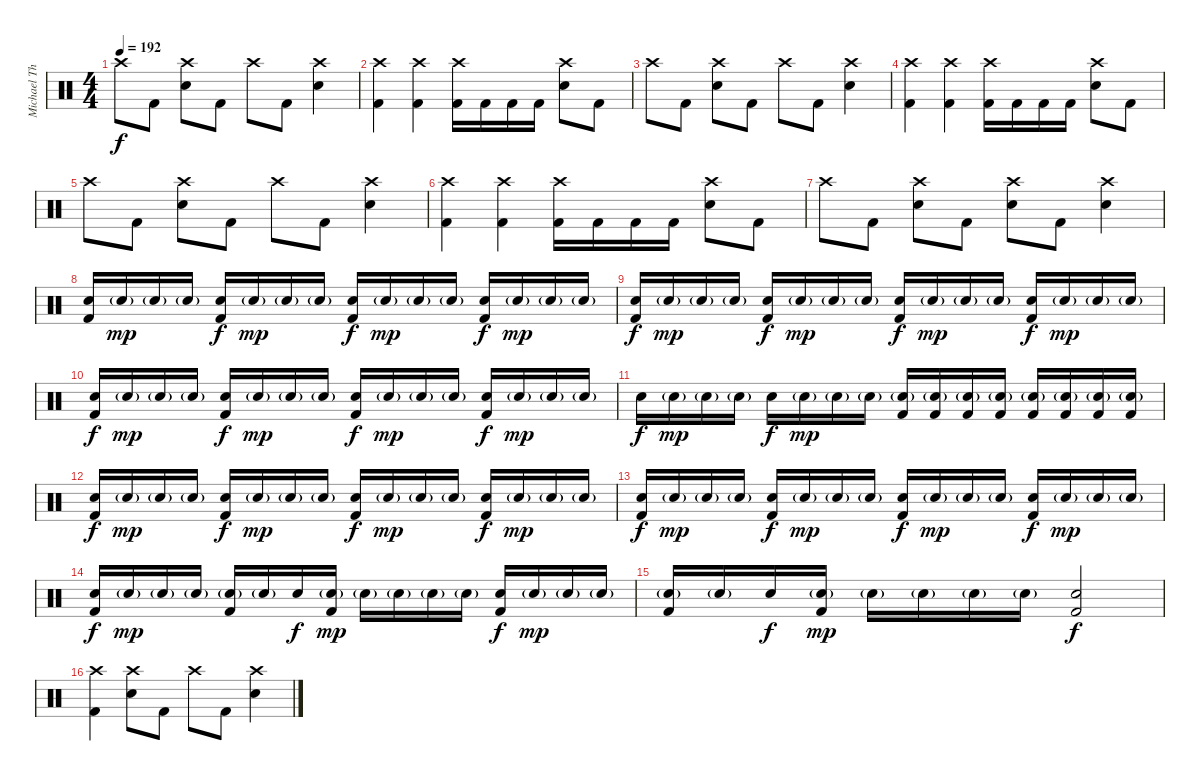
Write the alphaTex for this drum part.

\track ("Michael Thomas (Drums)" "Michael Th") {instrument percussion}
\staff {score}
\articulation defaults
\ts (4 4)
\tempo 192
\clef neutral
\ks c "Crash high (hit)".8{dy f} "Kick (hit) 2".8
("Crash high (hit)" "Snare (hit) 2").8 "Kick (hit) 2".8 "Crash high (hit)".8 "Kick (hit) 2".8 ("Crash high (hit)" "Snare (hit) 2").4 |
("Crash high (hit)" "Kick (hit) 2").4 ("Crash high (hit)" "Kick (hit) 2").4 ("Crash high (hit)" "Kick (hit) 2").16 "Kick (hit) 2".16 "Kick (hit) 2".16 "Kick (hit) 2".16 ("Crash high (hit)" "Snare (hit) 2").8 "Kick (hit) 2".8 |
"Crash high (hit)".8 "Kick (hit) 2".8 ("Crash high (hit)" "Snare (hit) 2").8 "Kick (hit) 2".8 "Crash high (hit)".8 "Kick (hit) 2".8 ("Crash high (hit)" "Snare (hit) 2").4 |
("Crash high (hit)" "Kick (hit) 2").4 ("Crash high (hit)" "Kick (hit) 2").4 ("Crash high (hit)" "Kick (hit) 2").16 "Kick (hit) 2".16 "Kick (hit) 2".16 "Kick (hit) 2".16 ("Crash high (hit)" "Snare (hit) 2").8 "Kick (hit) 2".8 |
"Crash high (hit)".8 "Kick (hit) 2".8 ("Crash high (hit)" "Snare (hit) 2").8 "Kick (hit) 2".8 "Crash high (hit)".8 "Kick (hit) 2".8 ("Crash high (hit)" "Snare (hit) 2").4 |
("Crash high (hit)" "Kick (hit) 2").4 ("Crash high (hit)" "Kick (hit) 2").4 ("Crash high (hit)" "Kick (hit) 2").16 "Kick (hit) 2".16 "Kick (hit) 2".16 "Kick (hit) 2".16 ("Crash high (hit)" "Snare (hit) 2").8 "Kick (hit) 2".8 |
"Crash high (hit)".8 "Kick (hit) 2".8 ("Crash high (hit)" "Snare (hit) 2").8 "Kick (hit) 2".8 ("Crash high (hit)" "Snare (hit) 2").8 "Kick (hit) 2".8 ("Crash high (hit)" "Snare (hit) 2").4 |
("Kick (hit) 2" "Snare (hit) 2").16 "Snare (hit) 2"{g}.16{dy mp} "Snare (hit) 2"{g}.16 "Snare (hit) 2"{g}.16 ("Kick (hit) 2" "Snare (hit) 2").16{dy f} "Snare (hit) 2"{g}.16{dy mp} "Snare (hit) 2"{g}.16 "Snare (hit) 2"{g}.16 ("Kick (hit) 2" "Snare (hit) 2").16{dy f} "Snare (hit) 2"{g}.16{dy mp} "Snare (hit) 2"{g}.16 "Snare (hit) 2"{g}.16 ("Kick (hit) 2" "Snare (hit) 2").16{dy f} "Snare (hit) 2"{g}.16{dy mp} "Snare (hit) 2"{g}.16 "Snare (hit) 2"{g}.16 |
("Kick (hit) 2" "Snare (hit) 2").16{dy f} "Snare (hit) 2"{g}.16{dy mp} "Snare (hit) 2"{g}.16 "Snare (hit) 2"{g}.16 ("Kick (hit) 2" "Snare (hit) 2").16{dy f} "Snare (hit) 2"{g}.16{dy mp} "Snare (hit) 2"{g}.16 "Snare (hit) 2"{g}.16 ("Kick (hit) 2" "Snare (hit) 2").16{dy f} "Snare (hit) 2"{g}.16{dy mp} "Snare (hit) 2"{g}.16 "Snare (hit) 2"{g}.16 ("Kick (hit) 2" "Snare (hit) 2").16{dy f} "Snare (hit) 2"{g}.16{dy mp} "Snare (hit) 2"{g}.16 "Snare (hit) 2"{g}.16 |
("Kick (hit) 2" "Snare (hit) 2").16{dy f} "Snare (hit) 2"{g}.16{dy mp} "Snare (hit) 2"{g}.16 "Snare (hit) 2"{g}.16 ("Kick (hit) 2" "Snare (hit) 2").16{dy f} "Snare (hit) 2"{g}.16{dy mp} "Snare (hit) 2"{g}.16 "Snare (hit) 2"{g}.16 ("Kick (hit) 2" "Snare (hit) 2").16{dy f} "Snare (hit) 2"{g}.16{dy mp} "Snare (hit) 2"{g}.16 "Snare (hit) 2"{g}.16 ("Kick (hit) 2" "Snare (hit) 2").16{dy f} "Snare (hit) 2"{g}.16{dy mp} "Snare (hit) 2"{g}.16 "Snare (hit) 2"{g}.16 |
"Snare (hit) 2".16{dy f} "Snare (hit) 2"{g}.16{dy mp} "Snare (hit) 2"{g}.16 "Snare (hit) 2"{g}.16 "Snare (hit) 2".16{dy f} "Snare (hit) 2"{g}.16{dy mp} "Snare (hit) 2"{g}.16 "Snare (hit) 2"{g}.16 ("Kick (hit) 2" "Snare (hit) 2"{g}).16 ("Kick (hit) 2" "Snare (hit) 2"{g}).16 ("Kick (hit) 2" "Snare (hit) 2"{g}).16 ("Kick (hit) 2" "Snare (hit) 2"{g}).16 ("Kick (hit) 2" "Snare (hit) 2"{g}).16 ("Kick (hit) 2" "Snare (hit) 2"{g}).16 ("Kick (hit) 2" "Snare (hit) 2"{g}).16 ("Kick (hit) 2" "Snare (hit) 2"{g}).16 |
("Kick (hit) 2" "Snare (hit) 2").16{dy f} "Snare (hit) 2"{g}.16{dy mp} "Snare (hit) 2"{g}.16 "Snare (hit) 2"{g}.16 ("Kick (hit) 2" "Snare (hit) 2").16{dy f} "Snare (hit) 2"{g}.16{dy mp} "Snare (hit) 2"{g}.16 "Snare (hit) 2"{g}.16 ("Kick (hit) 2" "Snare (hit) 2").16{dy f} "Snare (hit) 2"{g}.16{dy mp} "Snare (hit) 2"{g}.16 "Snare (hit) 2"{g}.16 ("Kick (hit) 2" "Snare (hit) 2").16{dy f} "Snare (hit) 2"{g}.16{dy mp} "Snare (hit) 2"{g}.16 "Snare (hit) 2"{g}.16 |
("Kick (hit) 2" "Snare (hit) 2").16{dy f} "Snare (hit) 2"{g}.16{dy mp} "Snare (hit) 2"{g}.16 "Snare (hit) 2"{g}.16 ("Kick (hit) 2" "Snare (hit) 2").16{dy f} "Snare (hit) 2"{g}.16{dy mp} "Snare (hit) 2"{g}.16 "Snare (hit) 2"{g}.16 ("Kick (hit) 2" "Snare (hit) 2").16{dy f} "Snare (hit) 2"{g}.16{dy mp} "Snare (hit) 2"{g}.16 "Snare (hit) 2"{g}.16 ("Kick (hit) 2" "Snare (hit) 2").16{dy f} "Snare (hit) 2"{g}.16{dy mp} "Snare (hit) 2"{g}.16 "Snare (hit) 2"{g}.16 |
("Kick (hit) 2" "Snare (hit) 2").16{dy f} "Snare (hit) 2"{g}.16{dy mp} "Snare (hit) 2"{g}.16 "Snare (hit) 2"{g}.16 ("Kick (hit) 2" "Snare (hit) 2"{g}).16 "Snare (hit) 2"{g}.16 "Snare (hit) 2".16{dy f} ("Kick (hit) 2" "Snare (hit) 2"{g}).16{dy mp} "Snare (hit) 2"{g}.16 "Snare (hit) 2"{g}.16 "Snare (hit) 2"{g}.16 "Snare (hit) 2"{g}.16 ("Kick (hit) 2" "Snare (hit) 2").16{dy f} "Snare (hit) 2"{g}.16{dy mp} "Snare (hit) 2"{g}.16 "Snare (hit) 2"{g}.16 |
("Kick (hit) 2" "Snare (hit) 2"{g}).16 "Snare (hit) 2"{g}.16 "Snare (hit) 2".16{dy f} ("Kick (hit) 2" "Snare (hit) 2"{g}).16{dy mp} "Snare (hit) 2"{g}.16 "Snare (hit) 2"{g}.16 "Snare (hit) 2"{g}.16 "Snare (hit) 2"{g}.16 ("Kick (hit) 2" "Snare (hit) 2").2{dy f} |
("Crash high (hit)" "Kick (hit) 2").4 ("Crash high (hit)" "Snare (hit) 2").8 "Kick (hit) 2".8 "Crash high (hit)".8 "Kick (hit) 2".8 ("Crash high (hit)" "Snare (hit) 2").4
